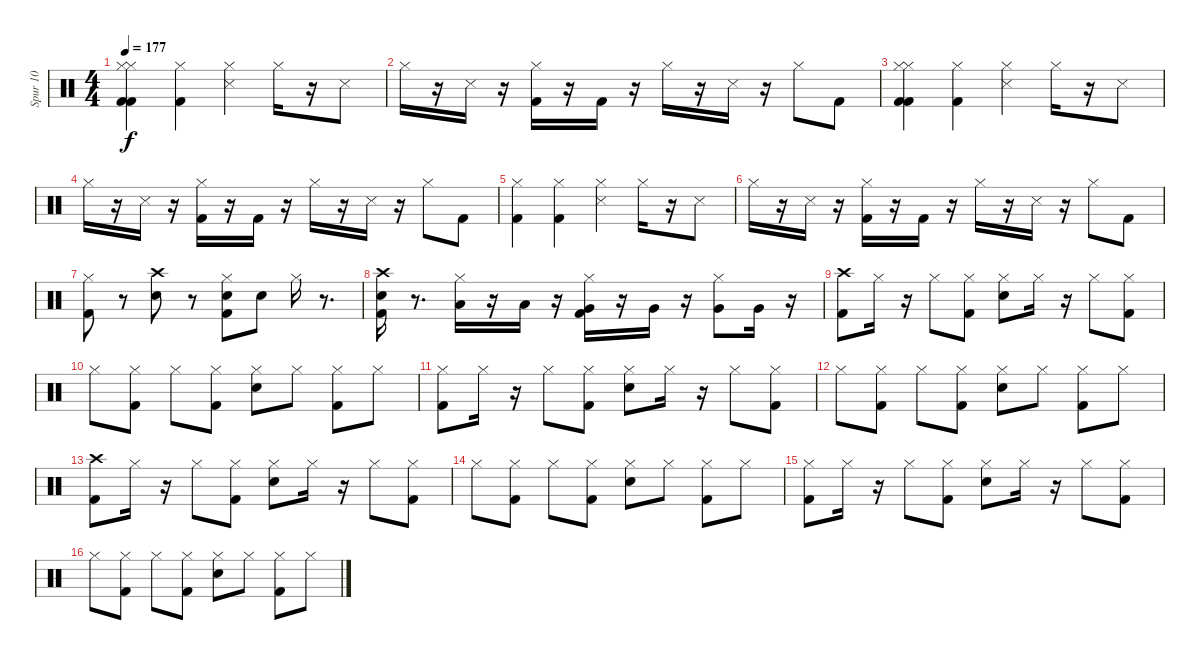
\track ("Spur 10" "Spur 10") {instrument percussion}
\staff {score}
\articulation defaults
\ts (4 4)
\tempo 177
\clef neutral
\ks c
("Hi-Hat (closed)" "Kick (hit) 2" "Hi-Hat (closed)" "Kick (hit) 2").4{dy f} ("Hi-Hat (closed)" "Kick (hit) 2").4 ("Hi-Hat (closed)" "Metronome (hit)").4 "Hi-Hat (closed)".16 r.16 "Metronome (hit)".8 |
"Hi-Hat (closed)".16 r.16 "Metronome (hit)".16 r.16 ("Kick (hit) 2" "Hi-Hat (closed)").16 r.16 "Kick (hit) 2".16 r.16 "Hi-Hat (closed)".16 r.16 "Metronome (hit)".16 r.16 "Hi-Hat (closed)".8 "Kick (hit) 2".8 |
("Hi-Hat (closed)" "Kick (hit) 2" "Hi-Hat (closed)" "Kick (hit) 2").4 ("Hi-Hat (closed)" "Kick (hit) 2").4 ("Hi-Hat (closed)" "Metronome (hit)").4 "Hi-Hat (closed)".16 r.16 "Metronome (hit)".8 |
"Hi-Hat (closed)".16 r.16 "Metronome (hit)".16 r.16 ("Kick (hit) 2" "Hi-Hat (closed)").16 r.16 "Kick (hit) 2".16 r.16 "Hi-Hat (closed)".16 r.16 "Metronome (hit)".16 r.16 "Hi-Hat (closed)".8 "Kick (hit) 2".8 |
("Hi-Hat (closed)" "Kick (hit) 2").4 ("Hi-Hat (closed)" "Kick (hit) 2").4 ("Hi-Hat (closed)" "Metronome (hit)").4 "Hi-Hat (closed)".16 r.16 "Metronome (hit)".8 |
"Hi-Hat (closed)".16 r.16 "Metronome (hit)".16 r.16 ("Kick (hit) 2" "Hi-Hat (closed)").16 r.16 "Kick (hit) 2".16 r.16 "Hi-Hat (closed)".16 r.16 "Metronome (hit)".16 r.16 "Hi-Hat (closed)".8 "Kick (hit) 2".8 |
("Hi-Hat (closed)" "Kick (hit) 2").8 r.8 ("Electric Snare (hit)" "Crash high (hit)").8 r.8 ("Kick (hit) 2" "Electric Snare (hit)" "Hi-Hat (closed)").8 "Electric Snare (hit)".8 "Hi-Hat (closed)".16 r.8{d} |
("Kick (hit) 2" "Electric Snare (hit)" "Crash high (hit)").16 r.8{d} ("Low Tom (hit)" "Hi-Hat (closed)").16 r.16 "Low Tom (hit)".16 r.16 ("Kick (hit) 2" "Very Low Tom (hit)" "Hi-Hat (closed)").16 r.16 "Very Low Tom (hit)".16 r.16 ("Very Low Tom (hit)" "Hi-Hat (closed)").8 "Very Low Tom (hit)".16 r.16 |
("Crash high (hit)" "Kick (hit) 2").8 "Hi-Hat (closed)".16 r.16 "Hi-Hat (closed)".8 ("Kick (hit) 2" "Hi-Hat (closed)").8 ("Hi-Hat (closed)" "Electric Snare (hit)").8 "Hi-Hat (closed)".16 r.16 "Hi-Hat (closed)".8 ("Kick (hit) 2" "Hi-Hat (closed)").8 |
"Hi-Hat (closed)".8 ("Kick (hit) 2" "Hi-Hat (closed)").8 "Hi-Hat (closed)".8 ("Hi-Hat (closed)" "Kick (hit) 2").8 ("Hi-Hat (closed)" "Electric Snare (hit)").8 "Hi-Hat (closed)".8 ("Kick (hit) 2" "Hi-Hat (closed)").8 "Hi-Hat (closed)".8 |
("Kick (hit) 2" "Hi-Hat (closed)").8 "Hi-Hat (closed)".16 r.16 "Hi-Hat (closed)".8 ("Hi-Hat (closed)" "Kick (hit) 2").8 ("Electric Snare (hit)" "Hi-Hat (closed)").8 "Hi-Hat (closed)".16 r.16 "Hi-Hat (closed)".8 ("Kick (hit) 2" "Hi-Hat (closed)").8 |
"Hi-Hat (closed)".8 ("Kick (hit) 2" "Hi-Hat (closed)").8 "Hi-Hat (closed)".8 ("Hi-Hat (closed)" "Kick (hit) 2").8 ("Hi-Hat (closed)" "Electric Snare (hit)").8 "Hi-Hat (closed)".8 ("Kick (hit) 2" "Hi-Hat (closed)").8 "Hi-Hat (closed)".8 |
("Crash high (hit)" "Kick (hit) 2").8 "Hi-Hat (closed)".16 r.16 "Hi-Hat (closed)".8 ("Kick (hit) 2" "Hi-Hat (closed)").8 ("Hi-Hat (closed)" "Electric Snare (hit)").8 "Hi-Hat (closed)".16 r.16 "Hi-Hat (closed)".8 ("Kick (hit) 2" "Hi-Hat (closed)").8 |
"Hi-Hat (closed)".8 ("Kick (hit) 2" "Hi-Hat (closed)").8 "Hi-Hat (closed)".8 ("Hi-Hat (closed)" "Kick (hit) 2").8 ("Hi-Hat (closed)" "Electric Snare (hit)").8 "Hi-Hat (closed)".8 ("Kick (hit) 2" "Hi-Hat (closed)").8 "Hi-Hat (closed)".8 |
("Kick (hit) 2" "Hi-Hat (closed)").8 "Hi-Hat (closed)".16 r.16 "Hi-Hat (closed)".8 ("Hi-Hat (closed)" "Kick (hit) 2").8 ("Electric Snare (hit)" "Hi-Hat (closed)").8 "Hi-Hat (closed)".16 r.16 "Hi-Hat (closed)".8 ("Kick (hit) 2" "Hi-Hat (closed)").8 |
"Hi-Hat (closed)".8 ("Kick (hit) 2" "Hi-Hat (closed)").8 "Hi-Hat (closed)".8 ("Hi-Hat (closed)" "Kick (hit) 2").8 ("Hi-Hat (closed)" "Electric Snare (hit)").8 "Hi-Hat (closed)".8 ("Kick (hit) 2" "Hi-Hat (closed)").8 "Hi-Hat (closed)".8
